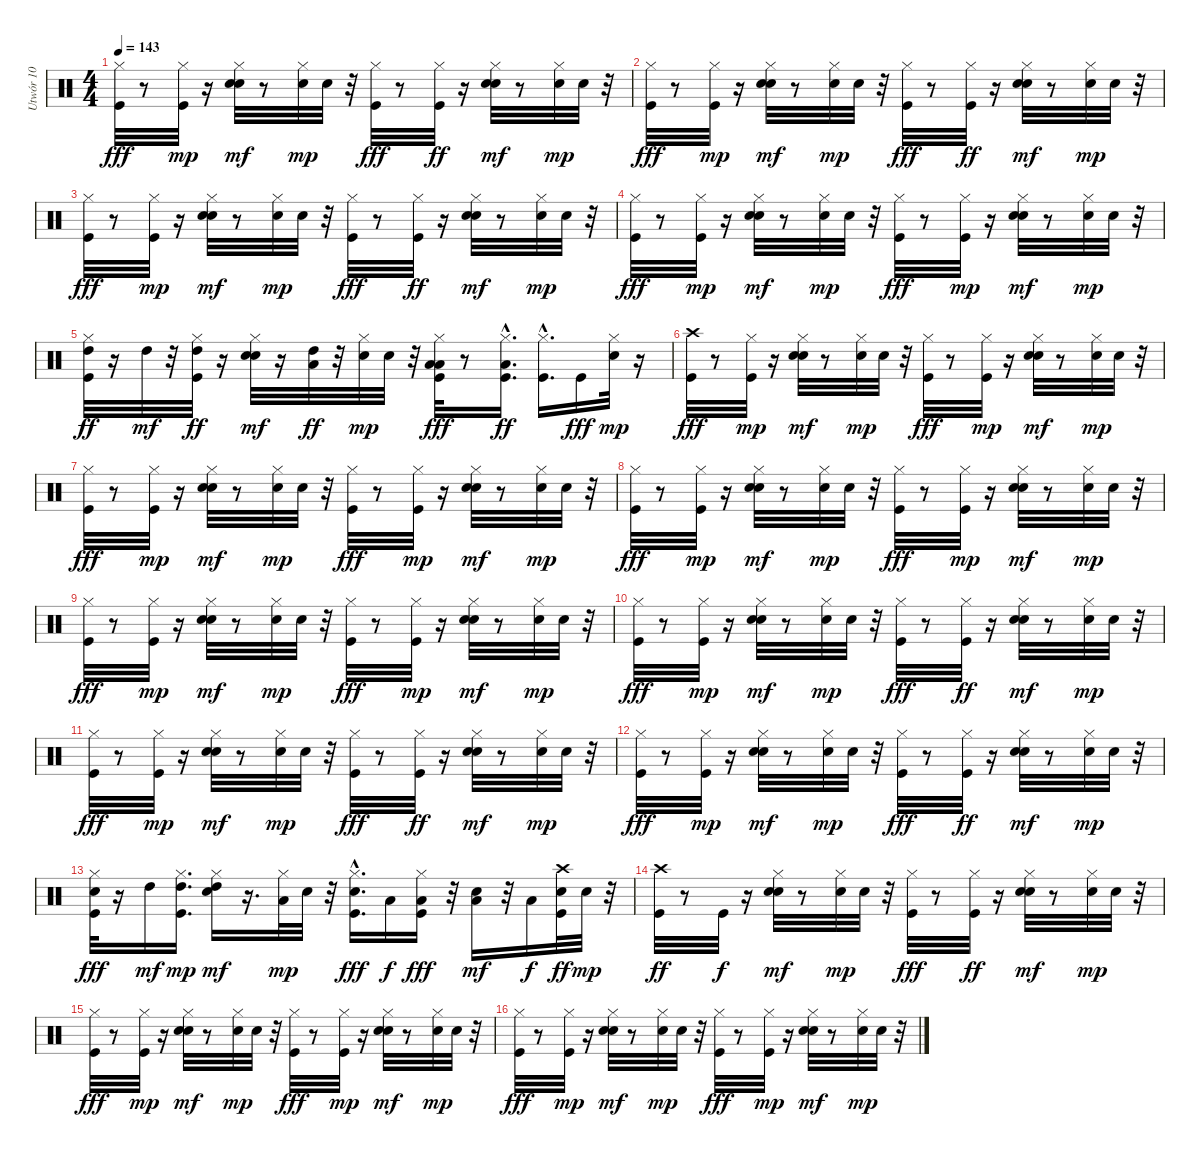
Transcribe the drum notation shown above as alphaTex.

\track ("Utwór 10" "Utwór 10") {instrument percussion}
\staff {score}
\articulation defaults
\ts (4 4)
\tempo 143
\clef neutral
\ks c
("Hi-Hat (closed)" "Kick (hit)").32{dy fff} r.8 ("Kick (hit)" "Hi-Hat (closed)").32{dy mp} r.16 ("Hi-Hat (closed)" "Snare (hit) 2" "Hand Clap (hit)").32{dy mf} r.8 ("Snare (hit) 2" "Hi-Hat (closed)").32{dy mp} "Hand Clap (hit)".32 r.32 ("Kick (hit)" "Hi-Hat (closed)").32{dy fff} r.8 ("Hi-Hat (closed)" "Kick (hit)").32{dy ff} r.16 ("Hi-Hat (closed)" "Snare (hit) 2" "Hand Clap (hit)").32{dy mf} r.8 ("Snare (hit) 2" "Hi-Hat (closed)").32{dy mp} "Hand Clap (hit)".32 r.32 |
("Hi-Hat (closed)" "Kick (hit)").32{dy fff} r.8 ("Kick (hit)" "Hi-Hat (closed)").32{dy mp} r.16 ("Hi-Hat (closed)" "Snare (hit) 2" "Hand Clap (hit)").32{dy mf} r.8 ("Snare (hit) 2" "Hi-Hat (closed)").32{dy mp} "Hand Clap (hit)".32 r.32 ("Hi-Hat (closed)" "Kick (hit)").32{dy fff} r.8 ("Hi-Hat (closed)" "Kick (hit)").32{dy ff} r.16 ("Hi-Hat (closed)" "Snare (hit) 2" "Hand Clap (hit)").32{dy mf} r.8 ("Snare (hit) 2" "Hi-Hat (closed)").32{dy mp} "Hand Clap (hit)".32 r.32 |
("Hi-Hat (closed)" "Kick (hit)").32{dy fff} r.8 ("Kick (hit)" "Hi-Hat (closed)").32{dy mp} r.16 ("Hi-Hat (closed)" "Snare (hit) 2" "Hand Clap (hit)").32{dy mf} r.8 ("Snare (hit) 2" "Hi-Hat (closed)").32{dy mp} "Hand Clap (hit)".32 r.32 ("Kick (hit)" "Hi-Hat (closed)").32{dy fff} r.8 ("Hi-Hat (closed)" "Kick (hit)").32{dy ff} r.16 ("Hi-Hat (closed)" "Snare (hit) 2" "Hand Clap (hit)").32{dy mf} r.8 ("Snare (hit) 2" "Hi-Hat (closed)").32{dy mp} "Hand Clap (hit)".32 r.32 |
("Hi-Hat (closed)" "Kick (hit)").32{dy fff} r.8 ("Hi-Hat (closed)" "Kick (hit)").32{dy mp} r.16 ("Hi-Hat (closed)" "Snare (hit) 2" "Hand Clap (hit)").32{dy mf} r.8 ("Hi-Hat (closed)" "Snare (hit) 2").32{dy mp} "Hand Clap (hit)".32 r.32 ("Hi-Hat (closed)" "Kick (hit)").32{dy fff} r.8 ("Kick (hit)" "Hi-Hat (closed)").32{dy mp} r.16 ("Snare (hit) 2" "Hi-Hat (closed)" "Hand Clap (hit)").32{dy mf} r.8 ("Hi-Hat (closed)" "Snare (hit) 2").32{dy mp} "Hand Clap (hit)".32 r.32 |
("Kick (hit)" "Hi-Hat (closed)" "High Tom (hit)").32{dy ff} r.16 "High Tom (hit)".32{dy mf} r.32 ("Kick (hit)" "Hi-Hat (closed)" "High Tom (hit)").32{dy ff} r.16 ("Snare (hit) 2" "Hi-Hat (closed)" "Hand Clap (hit)").32{dy mf} r.16 ("High Tom (hit)" "Low Tom (hit)").32{dy ff} r.32 ("Snare (hit) 2" "Hi-Hat (closed)").32{dy mp} "Hand Clap (hit)".32 r.32 ("Low Tom (hit)" "Hi-Hat (closed)" "Low Floor Tom (hit)" "Kick (hit)").32{dy fff} r.8 ("Low Floor Tom (hit)" "Hi-Hat (closed)" "Kick (hit)"{hac}).16{d dy ff} ("Hi-Hat (closed)" "Kick (hit)"{hac}).16{d} "Kick (hit)".16{dy fff} ("Snare (hit) 2" "Hi-Hat (closed)").32{dy mp} r.16 |
("Crash high (hit)" "Kick (hit)").32{dy fff} r.8 ("Kick (hit)" "Hi-Hat (closed)").32{dy mp} r.16 ("Snare (hit) 2" "Hi-Hat (closed)" "Hand Clap (hit)").32{dy mf} r.8 ("Hi-Hat (closed)" "Snare (hit) 2").32{dy mp} "Hand Clap (hit)".32 r.32 ("Kick (hit)" "Hi-Hat (closed)").32{dy fff} r.8 ("Kick (hit)" "Hi-Hat (closed)").32{dy mp} r.16 ("Snare (hit) 2" "Hi-Hat (closed)" "Hand Clap (hit)").32{dy mf} r.8 ("Snare (hit) 2" "Hi-Hat (closed)").32{dy mp} "Hand Clap (hit)".32 r.32 |
("Hi-Hat (closed)" "Kick (hit)").32{dy fff} r.8 ("Kick (hit)" "Hi-Hat (closed)").32{dy mp} r.16 ("Hi-Hat (closed)" "Snare (hit) 2" "Hand Clap (hit)").32{dy mf} r.8 ("Snare (hit) 2" "Hi-Hat (closed)").32{dy mp} "Hand Clap (hit)".32 r.32 ("Hi-Hat (closed)" "Kick (hit)").32{dy fff} r.8 ("Kick (hit)" "Hi-Hat (closed)").32{dy mp} r.16 ("Snare (hit) 2" "Hi-Hat (closed)" "Hand Clap (hit)").32{dy mf} r.8 ("Snare (hit) 2" "Hi-Hat (closed)").32{dy mp} "Hand Clap (hit)".32 r.32 |
("Hi-Hat (closed)" "Kick (hit)").32{dy fff} r.8 ("Kick (hit)" "Hi-Hat (closed)").32{dy mp} r.16 ("Snare (hit) 2" "Hi-Hat (closed)" "Hand Clap (hit)").32{dy mf} r.8 ("Snare (hit) 2" "Hi-Hat (closed)").32{dy mp} "Hand Clap (hit)".32 r.32 ("Hi-Hat (closed)" "Kick (hit)").32{dy fff} r.8 ("Kick (hit)" "Hi-Hat (closed)").32{dy mp} r.16 ("Snare (hit) 2" "Hi-Hat (closed)" "Hand Clap (hit)").32{dy mf} r.8 ("Snare (hit) 2" "Hi-Hat (closed)").32{dy mp} "Hand Clap (hit)".32 r.32 |
("Hi-Hat (closed)" "Kick (hit)").32{dy fff} r.8 ("Kick (hit)" "Hi-Hat (closed)").32{dy mp} r.16 ("Hi-Hat (closed)" "Snare (hit) 2" "Hand Clap (hit)").32{dy mf} r.8 ("Hi-Hat (closed)" "Snare (hit) 2").32{dy mp} "Hand Clap (hit)".32 r.32 ("Hi-Hat (closed)" "Kick (hit)").32{dy fff} r.8 ("Kick (hit)" "Hi-Hat (closed)").32{dy mp} r.16 ("Snare (hit) 2" "Hi-Hat (closed)" "Hand Clap (hit)").32{dy mf} r.8 ("Hi-Hat (closed)" "Snare (hit) 2").32{dy mp} "Hand Clap (hit)".32 r.32 |
("Hi-Hat (closed)" "Kick (hit)").32{dy fff} r.8 ("Hi-Hat (closed)" "Kick (hit)").32{dy mp} r.16 ("Snare (hit) 2" "Hi-Hat (closed)" "Hand Clap (hit)").32{dy mf} r.8 ("Snare (hit) 2" "Hi-Hat (closed)").32{dy mp} "Hand Clap (hit)".32 r.32 ("Kick (hit)" "Hi-Hat (closed)").32{dy fff} r.8 ("Hi-Hat (closed)" "Kick (hit)").32{dy ff} r.16 ("Hi-Hat (closed)" "Snare (hit) 2" "Hand Clap (hit)").32{dy mf} r.8 ("Hi-Hat (closed)" "Snare (hit) 2").32{dy mp} "Hand Clap (hit)".32 r.32 |
("Kick (hit)" "Hi-Hat (closed)").32{dy fff} r.8 ("Hi-Hat (closed)" "Kick (hit)").32{dy mp} r.16 ("Hi-Hat (closed)" "Snare (hit) 2" "Hand Clap (hit)").32{dy mf} r.8 ("Snare (hit) 2" "Hi-Hat (closed)").32{dy mp} "Hand Clap (hit)".32 r.32 ("Hi-Hat (closed)" "Kick (hit)").32{dy fff} r.8 ("Hi-Hat (closed)" "Kick (hit)").32{dy ff} r.16 ("Snare (hit) 2" "Hi-Hat (closed)" "Hand Clap (hit)").32{dy mf} r.8 ("Snare (hit) 2" "Hi-Hat (closed)").32{dy mp} "Hand Clap (hit)".32 r.32 |
("Hi-Hat (closed)" "Kick (hit)").32{dy fff} r.8 ("Hi-Hat (closed)" "Kick (hit)").32{dy mp} r.16 ("Snare (hit) 2" "Hi-Hat (closed)" "Hand Clap (hit)").32{dy mf} r.8 ("Snare (hit) 2" "Hi-Hat (closed)").32{dy mp} "Hand Clap (hit)".32 r.32 ("Kick (hit)" "Hi-Hat (closed)").32{dy fff} r.8 ("Hi-Hat (closed)" "Kick (hit)").32{dy ff} r.16 ("Snare (hit) 2" "Hi-Hat (closed)" "Hand Clap (hit)").32{dy mf} r.8 ("Snare (hit) 2" "Hi-Hat (closed)").32{dy mp} "Hand Clap (hit)".32 r.32 |
("Hi-Hat (closed)" "Kick (hit)" "Snare (hit) 2").32{dy fff} r.16 "High Tom (hit)".16{dy mf} ("Kick (hit)" "High Tom (hit)" "Hi-Hat (closed)").16{d dy mp} ("High Tom (hit)" "Hi-Hat (closed)" "Hand Clap (hit)").16{dy mf} r.16{d} ("Low Tom (hit)" "Hi-Hat (closed)").32{dy mp} "Hand Clap (hit)".32 r.32 ("Snare (hit) 2" "Hi-Hat (closed)" "Kick (hit)"{hac}).16{d dy fff} "Low Tom (hit)".16{dy f} ("Kick (hit)" "Hi-Hat (closed)" "Low Tom (hit)").16{dy fff} r.32 ("Low Floor Tom (hit)" "Hand Clap (hit)").16{dy mf} r.32 "Low Floor Tom (hit)".16{dy f} ("Crash high (hit)" "Kick (hit)" "Snare (hit) 2").32{dy ff} "Hand Clap (hit)".32{dy mp} r.32 |
("Kick (hit)" "Crash high (hit)").32{dy ff} r.8 "Kick (hit)".32{dy f} r.16 ("Hi-Hat (closed)" "Snare (hit) 2" "Hand Clap (hit)").32{dy mf} r.8 ("Hi-Hat (closed)" "Snare (hit) 2").32{dy mp} "Hand Clap (hit)".32 r.32 ("Hi-Hat (closed)" "Kick (hit)").32{dy fff} r.8 ("Hi-Hat (closed)" "Kick (hit)").32{dy ff} r.16 ("Snare (hit) 2" "Hi-Hat (closed)" "Hand Clap (hit)").32{dy mf} r.8 ("Snare (hit) 2" "Hi-Hat (closed)").32{dy mp} "Hand Clap (hit)".32 r.32 |
("Hi-Hat (closed)" "Kick (hit)").32{dy fff} r.8 ("Kick (hit)" "Hi-Hat (closed)").32{dy mp} r.16 ("Snare (hit) 2" "Hi-Hat (closed)" "Hand Clap (hit)").32{dy mf} r.8 ("Snare (hit) 2" "Hi-Hat (closed)").32{dy mp} "Hand Clap (hit)".32 r.32 ("Hi-Hat (closed)" "Kick (hit)").32{dy fff} r.8 ("Kick (hit)" "Hi-Hat (closed)").32{dy mp} r.16 ("Hi-Hat (closed)" "Snare (hit) 2" "Hand Clap (hit)").32{dy mf} r.8 ("Hi-Hat (closed)" "Snare (hit) 2").32{dy mp} "Hand Clap (hit)".32 r.32 |
("Hi-Hat (closed)" "Kick (hit)").32{dy fff} r.8 ("Hi-Hat (closed)" "Kick (hit)").32{dy mp} r.16 ("Snare (hit) 2" "Hi-Hat (closed)" "Hand Clap (hit)").32{dy mf} r.8 ("Snare (hit) 2" "Hi-Hat (closed)").32{dy mp} "Hand Clap (hit)".32 r.32 ("Kick (hit)" "Hi-Hat (closed)").32{dy fff} r.8 ("Kick (hit)" "Hi-Hat (closed)").32{dy mp} r.16 ("Hi-Hat (closed)" "Snare (hit) 2" "Hand Clap (hit)").32{dy mf} r.8 ("Hi-Hat (closed)" "Snare (hit) 2").32{dy mp} "Hand Clap (hit)".32 r.32
